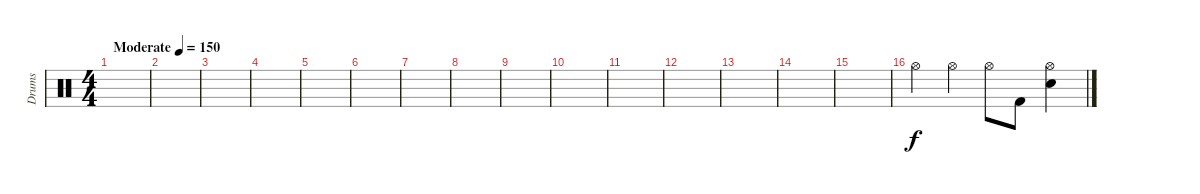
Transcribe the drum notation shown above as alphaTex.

\track ("Drums" "Drums") {instrument percussion}
\staff {score}
\articulation defaults
\ts (4 4)
\tempo (150 "Moderate")
\clef neutral
\ks c
|
|
|
|
|
|
|
|
|
|
|
|
|
|
|
"Hi-Hat (open)".4 "Hi-Hat (open)".4 "Hi-Hat (open)".8 "Kick (hit) 2".8 ("Hi-Hat (open)" "Electric Snare (hit)").4
